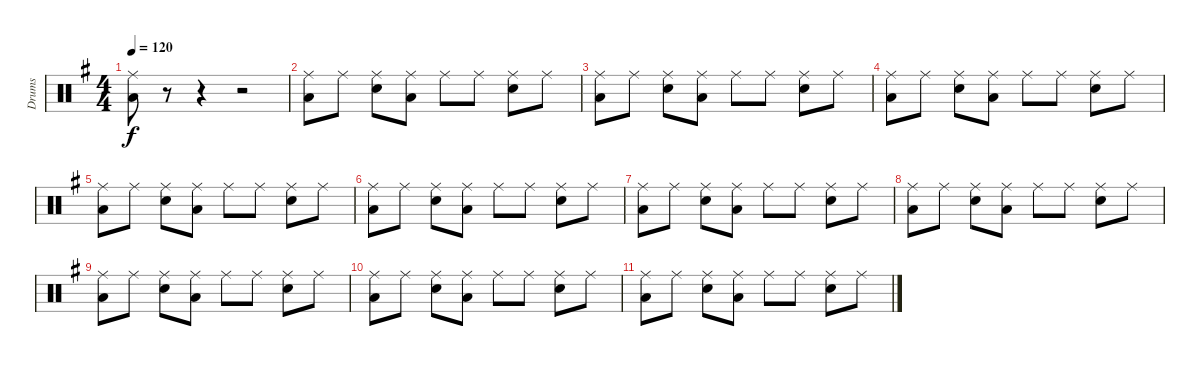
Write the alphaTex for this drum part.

\track ("Drums" "Drums") {instrument percussion}
\staff {score}
\articulation defaults
\ts (4 4)
\tempo 120
\clef neutral
\ks g
("Ride (middle)" "Low Floor Tom (hit)").8{dy f} r.8 r.4 r.2 |
("Ride (middle)" "Low Floor Tom (hit)").8 "Ride (middle)".8 ("Ride (middle)" "Snare (hit) 2").8 ("Ride (middle)" "Low Floor Tom (hit)").8 "Ride (middle)".8 "Ride (middle)".8 ("Ride (middle)" "Snare (hit) 2").8 "Ride (middle)".8 |
("Ride (middle)" "Low Floor Tom (hit)").8 "Ride (middle)".8 ("Ride (middle)" "Snare (hit) 2").8 ("Ride (middle)" "Low Floor Tom (hit)").8 "Ride (middle)".8 "Ride (middle)".8 ("Ride (middle)" "Snare (hit) 2").8 "Ride (middle)".8 |
("Ride (middle)" "Low Floor Tom (hit)").8 "Ride (middle)".8 ("Ride (middle)" "Snare (hit) 2").8 ("Ride (middle)" "Low Floor Tom (hit)").8 "Ride (middle)".8 "Ride (middle)".8 ("Ride (middle)" "Snare (hit) 2").8 "Ride (middle)".8 |
("Ride (middle)" "Low Floor Tom (hit)").8 "Ride (middle)".8 ("Ride (middle)" "Snare (hit) 2").8 ("Ride (middle)" "Low Floor Tom (hit)").8 "Ride (middle)".8 "Ride (middle)".8 ("Ride (middle)" "Snare (hit) 2").8 "Ride (middle)".8 |
("Ride (middle)" "Low Floor Tom (hit)").8 "Ride (middle)".8 ("Ride (middle)" "Snare (hit) 2").8 ("Ride (middle)" "Low Floor Tom (hit)").8 "Ride (middle)".8 "Ride (middle)".8 ("Ride (middle)" "Snare (hit) 2").8 "Ride (middle)".8 |
("Ride (middle)" "Low Floor Tom (hit)").8 "Ride (middle)".8 ("Ride (middle)" "Snare (hit) 2").8 ("Ride (middle)" "Low Floor Tom (hit)").8 "Ride (middle)".8 "Ride (middle)".8 ("Ride (middle)" "Snare (hit) 2").8 "Ride (middle)".8 |
("Ride (middle)" "Low Floor Tom (hit)").8 "Ride (middle)".8 ("Ride (middle)" "Snare (hit) 2").8 ("Ride (middle)" "Low Floor Tom (hit)").8 "Ride (middle)".8 "Ride (middle)".8 ("Ride (middle)" "Snare (hit) 2").8 "Ride (middle)".8 |
("Ride (middle)" "Low Floor Tom (hit)").8 "Ride (middle)".8 ("Ride (middle)" "Snare (hit) 2").8 ("Ride (middle)" "Low Floor Tom (hit)").8 "Ride (middle)".8 "Ride (middle)".8 ("Ride (middle)" "Snare (hit) 2").8 "Ride (middle)".8 |
("Ride (middle)" "Low Floor Tom (hit)").8 "Ride (middle)".8 ("Ride (middle)" "Snare (hit) 2").8 ("Ride (middle)" "Low Floor Tom (hit)").8 "Ride (middle)".8 "Ride (middle)".8 ("Ride (middle)" "Snare (hit) 2").8 "Ride (middle)".8 |
("Ride (middle)" "Low Floor Tom (hit)").8 "Ride (middle)".8 ("Ride (middle)" "Snare (hit) 2").8 ("Ride (middle)" "Low Floor Tom (hit)").8 "Ride (middle)".8 "Ride (middle)".8 ("Ride (middle)" "Snare (hit) 2").8 "Ride (middle)".8
